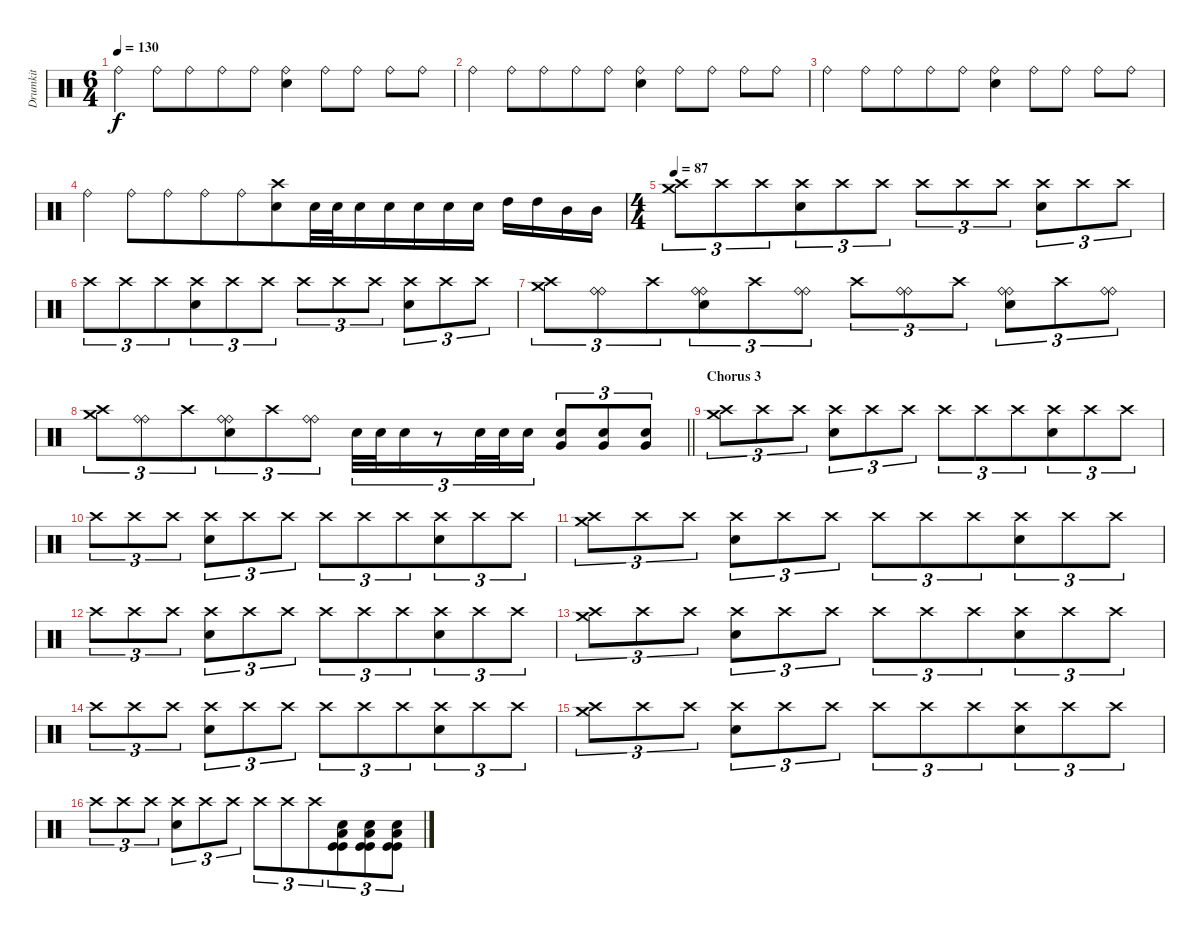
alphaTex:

\track ("Drumkit" "Drumkit") {instrument percussion bank 158}
\staff {score}
\articulation defaults
\ts (6 4)
\tempo 130
\clef neutral
\ks c "Ride (bell)".4{dy f beam merge} "Ride (bell)".8{beam merge} "Ride (bell)".8{beam merge} "Ride (bell)".8{beam merge} "Ride (bell)".8{beam merge}
("Ride (bell)" "Electric Snare (hit)").4{beam merge} "Ride (bell)".8 "Ride (bell)".8 "Ride (bell)".8{beam merge} "Ride (bell)".8 |
"Ride (bell)".4{beam merge} "Ride (bell)".8{beam merge} "Ride (bell)".8{beam merge} "Ride (bell)".8{beam merge} "Ride (bell)".8{beam merge} ("Ride (bell)" "Electric Snare (hit)").4{beam merge} "Ride (bell)".8 "Ride (bell)".8 "Ride (bell)".8{beam merge} "Ride (bell)".8 |
"Ride (bell)".4{beam merge} "Ride (bell)".8{beam merge} "Ride (bell)".8{beam merge} "Ride (bell)".8{beam merge} "Ride (bell)".8{beam merge} ("Ride (bell)" "Electric Snare (hit)").4{beam merge} "Ride (bell)".8 "Ride (bell)".8 "Ride (bell)".8{beam merge} "Ride (bell)".8 |
"Ride (bell)".4{beam merge} "Ride (bell)".8{beam merge} "Ride (bell)".8{beam merge} "Ride (bell)".8{beam merge} "Ride (bell)".8{beam merge} ("Crash high (hit)" "Electric Snare (hit)").8 "Electric Snare (hit)".32 "Electric Snare (hit)".32 "Electric Snare (hit)".16{beam merge} "Electric Snare (hit)".16 "Electric Snare (hit)".16 "Electric Snare (hit)".16 "Electric Snare (hit)".16 "High Tom (hit)".16 "High Tom (hit)".16 "Mid Tom (hit)".16 "Mid Tom (hit)".16 |
\ts (4 4)
\tempo 87
("Crash medium (hit)" "Crash high (hit)").8{tu (3 2) beam merge} "Crash high (hit)".8{tu (3 2) beam merge} "Crash high (hit)".8{tu (3 2) beam merge} ("Crash high (hit)" "Electric Snare (hit)").8{tu (3 2)} "Crash high (hit)".8{tu (3 2)} "Crash high (hit)".8{tu (3 2)} "Crash high (hit)".8{tu (3 2) beam merge} "Crash high (hit)".8{tu (3 2) beam merge} "Crash high (hit)".8{tu (3 2)} ("Crash high (hit)" "Electric Snare (hit)").8{tu (3 2)} "Crash high (hit)".8{tu (3 2) beam merge} "Crash high (hit)".8{tu (3 2)} |
"Crash high (hit)".8{tu (3 2) beam merge} "Crash high (hit)".8{tu (3 2) beam merge} "Crash high (hit)".8{tu (3 2) beam merge} ("Crash high (hit)" "Electric Snare (hit)").8{tu (3 2)} "Crash high (hit)".8{tu (3 2)} "Crash high (hit)".8{tu (3 2)} "Crash high (hit)".8{tu (3 2) beam merge} "Crash high (hit)".8{tu (3 2) beam merge} "Crash high (hit)".8{tu (3 2)} ("Crash high (hit)" "Electric Snare (hit)").8{tu (3 2)} "Crash high (hit)".8{tu (3 2) beam merge} "Crash high (hit)".8{tu (3 2)} |
("Crash medium (hit)" "Crash high (hit)").8{tu (3 2) beam merge} ("Ride (bell)" "Ride (bell)").8{tu (3 2) beam merge} "Crash high (hit)".8{tu (3 2) beam merge} ("Ride (bell)" "Ride (bell)" "Electric Snare (hit)").8{tu (3 2)} "Crash high (hit)".8{tu (3 2)} ("Ride (bell)" "Ride (bell)").8{tu (3 2)} "Crash high (hit)".8{tu (3 2) beam merge} ("Ride (bell)" "Ride (bell)").8{tu (3 2) beam merge} "Crash high (hit)".8{tu (3 2)} ("Ride (bell)" "Ride (bell)" "Electric Snare (hit)").8{tu (3 2)} "Crash high (hit)".8{tu (3 2) beam merge} ("Ride (bell)" "Ride (bell)").8{tu (3 2)} |
\barLineRight lightlight
("Crash medium (hit)" "Crash high (hit)").8{tu (3 2) beam merge} ("Ride (bell)" "Ride (bell)").8{tu (3 2) beam merge} "Crash high (hit)".8{tu (3 2) beam merge} ("Ride (bell)" "Ride (bell)" "Electric Snare (hit)").8{tu (3 2)} "Crash high (hit)".8{tu (3 2)} ("Ride (bell)" "Ride (bell)").8{tu (3 2)} "Electric Snare (hit)".32{tu (3 2) beam merge} "Electric Snare (hit)".32{tu (3 2) beam merge} "Electric Snare (hit)".16{tu (3 2) beam merge} r.8{tu (3 2)} "Electric Snare (hit)".32{tu (3 2)} "Electric Snare (hit)".32{tu (3 2) beam merge} "Electric Snare (hit)".16{tu (3 2)} ("Very Low Tom (hit)" "Electric Snare (hit)").8{tu (3 2) beam merge} ("Very Low Tom (hit)" "Electric Snare (hit)").8{tu (3 2) beam merge} ("Very Low Tom (hit)" "Electric Snare (hit)").8{tu (3 2)} |
\section ("" "Chorus 3")
("Crash medium (hit)" "Crash high (hit)").8{tu (3 2)} "Crash high (hit)".8{tu (3 2)} "Crash high (hit)".8{tu (3 2)} ("Crash high (hit)" "Electric Snare (hit)").8{tu (3 2)} "Crash high (hit)".8{tu (3 2) beam merge} "Crash high (hit)".8{tu (3 2)} "Crash high (hit)".8{tu (3 2)} "Crash high (hit)".8{tu (3 2)} "Crash high (hit)".8{tu (3 2) beam merge} ("Crash high (hit)" "Electric Snare (hit)").8{tu (3 2)} "Crash high (hit)".8{tu (3 2) beam merge} "Crash high (hit)".8{tu (3 2)} |
"Crash high (hit)".8{tu (3 2)} "Crash high (hit)".8{tu (3 2)} "Crash high (hit)".8{tu (3 2)} ("Crash high (hit)" "Electric Snare (hit)").8{tu (3 2)} "Crash high (hit)".8{tu (3 2) beam merge} "Crash high (hit)".8{tu (3 2)} "Crash high (hit)".8{tu (3 2)} "Crash high (hit)".8{tu (3 2)} "Crash high (hit)".8{tu (3 2) beam merge} ("Crash high (hit)" "Electric Snare (hit)").8{tu (3 2)} "Crash high (hit)".8{tu (3 2) beam merge} "Crash high (hit)".8{tu (3 2)} |
("Crash medium (hit)" "Crash high (hit)").8{tu (3 2)} "Crash high (hit)".8{tu (3 2)} "Crash high (hit)".8{tu (3 2)} ("Crash high (hit)" "Electric Snare (hit)").8{tu (3 2)} "Crash high (hit)".8{tu (3 2) beam merge} "Crash high (hit)".8{tu (3 2)} "Crash high (hit)".8{tu (3 2)} "Crash high (hit)".8{tu (3 2)} "Crash high (hit)".8{tu (3 2) beam merge} ("Crash high (hit)" "Electric Snare (hit)").8{tu (3 2)} "Crash high (hit)".8{tu (3 2) beam merge} "Crash high (hit)".8{tu (3 2)} |
"Crash high (hit)".8{tu (3 2)} "Crash high (hit)".8{tu (3 2)} "Crash high (hit)".8{tu (3 2)} ("Crash high (hit)" "Electric Snare (hit)").8{tu (3 2)} "Crash high (hit)".8{tu (3 2) beam merge} "Crash high (hit)".8{tu (3 2)} "Crash high (hit)".8{tu (3 2)} "Crash high (hit)".8{tu (3 2)} "Crash high (hit)".8{tu (3 2) beam merge} ("Crash high (hit)" "Electric Snare (hit)").8{tu (3 2)} "Crash high (hit)".8{tu (3 2) beam merge} "Crash high (hit)".8{tu (3 2)} |
("Crash medium (hit)" "Crash high (hit)").8{tu (3 2)} "Crash high (hit)".8{tu (3 2)} "Crash high (hit)".8{tu (3 2)} ("Crash high (hit)" "Electric Snare (hit)").8{tu (3 2)} "Crash high (hit)".8{tu (3 2) beam merge} "Crash high (hit)".8{tu (3 2)} "Crash high (hit)".8{tu (3 2)} "Crash high (hit)".8{tu (3 2)} "Crash high (hit)".8{tu (3 2) beam merge} ("Crash high (hit)" "Electric Snare (hit)").8{tu (3 2)} "Crash high (hit)".8{tu (3 2) beam merge} "Crash high (hit)".8{tu (3 2)} |
"Crash high (hit)".8{tu (3 2)} "Crash high (hit)".8{tu (3 2)} "Crash high (hit)".8{tu (3 2)} ("Crash high (hit)" "Electric Snare (hit)").8{tu (3 2)} "Crash high (hit)".8{tu (3 2) beam merge} "Crash high (hit)".8{tu (3 2)} "Crash high (hit)".8{tu (3 2)} "Crash high (hit)".8{tu (3 2)} "Crash high (hit)".8{tu (3 2) beam merge} ("Crash high (hit)" "Electric Snare (hit)").8{tu (3 2)} "Crash high (hit)".8{tu (3 2) beam merge} "Crash high (hit)".8{tu (3 2)} |
("Crash medium (hit)" "Crash high (hit)").8{tu (3 2)} "Crash high (hit)".8{tu (3 2)} "Crash high (hit)".8{tu (3 2)} ("Crash high (hit)" "Electric Snare (hit)").8{tu (3 2)} "Crash high (hit)".8{tu (3 2) beam merge} "Crash high (hit)".8{tu (3 2)} "Crash high (hit)".8{tu (3 2)} "Crash high (hit)".8{tu (3 2)} "Crash high (hit)".8{tu (3 2) beam merge} ("Crash high (hit)" "Electric Snare (hit)").8{tu (3 2)} "Crash high (hit)".8{tu (3 2) beam merge} "Crash high (hit)".8{tu (3 2)} |
"Crash high (hit)".8{tu (3 2)} "Crash high (hit)".8{tu (3 2)} "Crash high (hit)".8{tu (3 2)} ("Crash high (hit)" "Electric Snare (hit)").8{tu (3 2)} "Crash high (hit)".8{tu (3 2) beam merge} "Crash high (hit)".8{tu (3 2)} "Crash high (hit)".8{tu (3 2)} "Crash high (hit)".8{tu (3 2)} "Crash high (hit)".8{tu (3 2) beam merge} ("Low Floor Tom (hit)" "Electric Snare (hit)" "Kick (hit)" "Kick (hit)").8{tu (3 2)} ("Low Floor Tom (hit)" "Electric Snare (hit)" "Kick (hit)" "Kick (hit)").8{tu (3 2)} ("Low Floor Tom (hit)" "Electric Snare (hit)" "Kick (hit)" "Kick (hit)").8{tu (3 2)}
